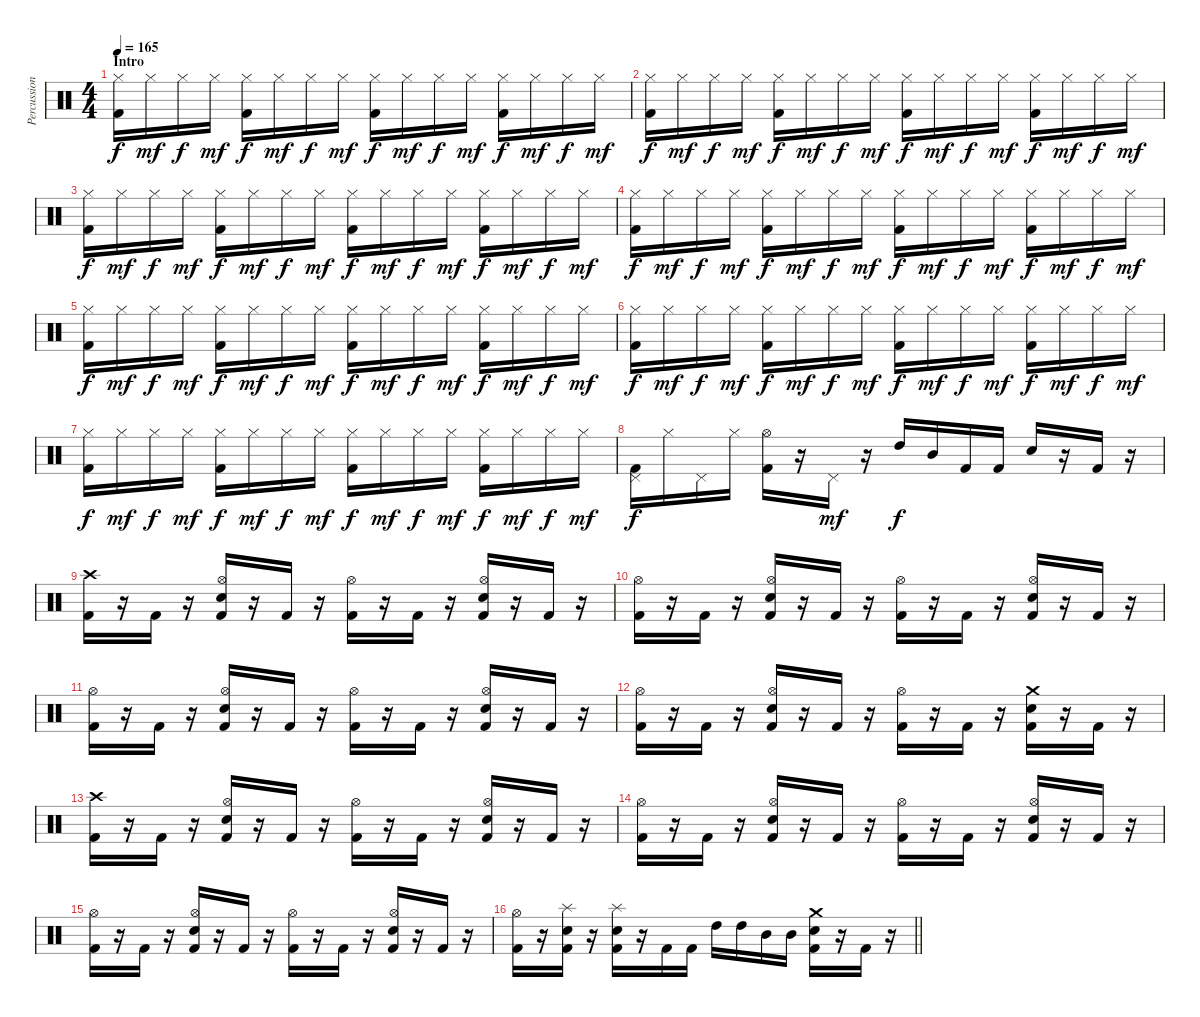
\track ("Percussion" "Percussion") {instrument percussion}
\staff {score}
\articulation defaults
\ts (4 4)
\section ("" "Intro")
\tempo 165
\clef neutral
\ks c
("Hi-Hat (closed)" "Kick (hit) 2").16{dy f} "Hi-Hat (closed)".16{dy mf} "Hi-Hat (closed)".16{dy f} "Hi-Hat (closed)".16{dy mf} ("Hi-Hat (closed)" "Kick (hit) 2").16{dy f} "Hi-Hat (closed)".16{dy mf} "Hi-Hat (closed)".16{dy f} "Hi-Hat (closed)".16{dy mf} ("Hi-Hat (closed)" "Kick (hit) 2").16{dy f} "Hi-Hat (closed)".16{dy mf} "Hi-Hat (closed)".16{dy f} "Hi-Hat (closed)".16{dy mf} ("Hi-Hat (closed)" "Kick (hit) 2").16{dy f} "Hi-Hat (closed)".16{dy mf} "Hi-Hat (closed)".16{dy f} "Hi-Hat (closed)".16{dy mf} |
("Hi-Hat (closed)" "Kick (hit) 2").16{dy f} "Hi-Hat (closed)".16{dy mf} "Hi-Hat (closed)".16{dy f} "Hi-Hat (closed)".16{dy mf} ("Hi-Hat (closed)" "Kick (hit) 2").16{dy f} "Hi-Hat (closed)".16{dy mf} "Hi-Hat (closed)".16{dy f} "Hi-Hat (closed)".16{dy mf} ("Hi-Hat (closed)" "Kick (hit) 2").16{dy f} "Hi-Hat (closed)".16{dy mf} "Hi-Hat (closed)".16{dy f} "Hi-Hat (closed)".16{dy mf} ("Hi-Hat (closed)" "Kick (hit) 2").16{dy f} "Hi-Hat (closed)".16{dy mf} "Hi-Hat (closed)".16{dy f} "Hi-Hat (closed)".16{dy mf} |
("Hi-Hat (closed)" "Kick (hit) 2").16{dy f} "Hi-Hat (closed)".16{dy mf} "Hi-Hat (closed)".16{dy f} "Hi-Hat (closed)".16{dy mf} ("Hi-Hat (closed)" "Kick (hit) 2").16{dy f} "Hi-Hat (closed)".16{dy mf} "Hi-Hat (closed)".16{dy f} "Hi-Hat (closed)".16{dy mf} ("Hi-Hat (closed)" "Kick (hit) 2").16{dy f} "Hi-Hat (closed)".16{dy mf} "Hi-Hat (closed)".16{dy f} "Hi-Hat (closed)".16{dy mf} ("Hi-Hat (closed)" "Kick (hit) 2").16{dy f} "Hi-Hat (closed)".16{dy mf} "Hi-Hat (closed)".16{dy f} "Hi-Hat (closed)".16{dy mf} |
("Hi-Hat (closed)" "Kick (hit) 2").16{dy f} "Hi-Hat (closed)".16{dy mf} "Hi-Hat (closed)".16{dy f} "Hi-Hat (closed)".16{dy mf} ("Hi-Hat (closed)" "Kick (hit) 2").16{dy f} "Hi-Hat (closed)".16{dy mf} "Hi-Hat (closed)".16{dy f} "Hi-Hat (closed)".16{dy mf} ("Hi-Hat (closed)" "Kick (hit) 2").16{dy f} "Hi-Hat (closed)".16{dy mf} "Hi-Hat (closed)".16{dy f} "Hi-Hat (closed)".16{dy mf} ("Hi-Hat (closed)" "Kick (hit) 2").16{dy f} "Hi-Hat (closed)".16{dy mf} "Hi-Hat (closed)".16{dy f} "Hi-Hat (closed)".16{dy mf} |
("Hi-Hat (closed)" "Kick (hit) 2").16{dy f} "Hi-Hat (closed)".16{dy mf} "Hi-Hat (closed)".16{dy f} "Hi-Hat (closed)".16{dy mf} ("Hi-Hat (closed)" "Kick (hit) 2").16{dy f} "Hi-Hat (closed)".16{dy mf} "Hi-Hat (closed)".16{dy f} "Hi-Hat (closed)".16{dy mf} ("Hi-Hat (closed)" "Kick (hit) 2").16{dy f} "Hi-Hat (closed)".16{dy mf} "Hi-Hat (closed)".16{dy f} "Hi-Hat (closed)".16{dy mf} ("Hi-Hat (closed)" "Kick (hit) 2").16{dy f} "Hi-Hat (closed)".16{dy mf} "Hi-Hat (closed)".16{dy f} "Hi-Hat (closed)".16{dy mf} |
("Hi-Hat (closed)" "Kick (hit) 2").16{dy f} "Hi-Hat (closed)".16{dy mf} "Hi-Hat (closed)".16{dy f} "Hi-Hat (closed)".16{dy mf} ("Hi-Hat (closed)" "Kick (hit) 2").16{dy f} "Hi-Hat (closed)".16{dy mf} "Hi-Hat (closed)".16{dy f} "Hi-Hat (closed)".16{dy mf} ("Hi-Hat (closed)" "Kick (hit) 2").16{dy f} "Hi-Hat (closed)".16{dy mf} "Hi-Hat (closed)".16{dy f} "Hi-Hat (closed)".16{dy mf} ("Hi-Hat (closed)" "Kick (hit) 2").16{dy f} "Hi-Hat (closed)".16{dy mf} "Hi-Hat (closed)".16{dy f} "Hi-Hat (closed)".16{dy mf} |
("Hi-Hat (closed)" "Kick (hit) 2").16{dy f} "Hi-Hat (closed)".16{dy mf} "Hi-Hat (closed)".16{dy f} "Hi-Hat (closed)".16{dy mf} ("Hi-Hat (closed)" "Kick (hit) 2").16{dy f} "Hi-Hat (closed)".16{dy mf} "Hi-Hat (closed)".16{dy f} "Hi-Hat (closed)".16{dy mf} ("Hi-Hat (closed)" "Kick (hit) 2").16{dy f} "Hi-Hat (closed)".16{dy mf} "Hi-Hat (closed)".16{dy f} "Hi-Hat (closed)".16{dy mf} ("Hi-Hat (closed)" "Kick (hit) 2").16{dy f} "Hi-Hat (closed)".16{dy mf} "Hi-Hat (closed)".16{dy f} "Hi-Hat (closed)".16{dy mf} |
("Pedal Hi-Hat (hit)" "Kick (hit) 2").16{dy f} "Hi-Hat (closed)".16 "Pedal Hi-Hat (hit)".16 "Hi-Hat (closed)".16 ("Hi-Hat (open)" "Kick (hit) 2").16 r.16 "Pedal Hi-Hat (hit)".16{dy mf} r.16 "High Tom (hit)".16{dy f} "Mid Tom (hit)".16 "Kick (hit) 2".16 "Kick (hit) 2".16 "Snare (hit) 2".16 r.16 "Kick (hit) 2".16 r.16 |
("Crash high (hit)" "Kick (hit) 2").16 r.16 "Kick (hit) 2".16 r.16 ("Hi-Hat (open)" "Snare (hit) 2" "Kick (hit) 2").16 r.16 "Kick (hit) 2".16 r.16 ("Hi-Hat (open)" "Kick (hit) 2").16 r.16 "Kick (hit) 2".16 r.16 ("Hi-Hat (open)" "Snare (hit) 2" "Kick (hit) 2").16 r.16 "Kick (hit) 2".16 r.16 |
("Hi-Hat (open)" "Kick (hit) 2").16 r.16 "Kick (hit) 2".16 r.16 ("Hi-Hat (open)" "Snare (hit) 2" "Kick (hit) 2").16 r.16 "Kick (hit) 2".16 r.16 ("Hi-Hat (open)" "Kick (hit) 2").16 r.16 "Kick (hit) 2".16 r.16 ("Hi-Hat (open)" "Snare (hit) 2" "Kick (hit) 2").16 r.16 "Kick (hit) 2".16 r.16 |
("Hi-Hat (open)" "Kick (hit) 2").16 r.16 "Kick (hit) 2".16 r.16 ("Hi-Hat (open)" "Snare (hit) 2" "Kick (hit) 2").16 r.16 "Kick (hit) 2".16 r.16 ("Hi-Hat (open)" "Kick (hit) 2").16 r.16 "Kick (hit) 2".16 r.16 ("Hi-Hat (open)" "Snare (hit) 2" "Kick (hit) 2").16 r.16 "Kick (hit) 2".16 r.16 |
("Hi-Hat (open)" "Kick (hit) 2").16 r.16 "Kick (hit) 2".16 r.16 ("Hi-Hat (open)" "Snare (hit) 2" "Kick (hit) 2").16 r.16 "Kick (hit) 2".16 r.16 ("Hi-Hat (open)" "Kick (hit) 2").16 r.16 "Kick (hit) 2".16 r.16 ("Crash medium (hit)" "Snare (hit) 2" "Kick (hit) 2").16 r.16 "Kick (hit) 2".16 r.16 |
("Crash high (hit)" "Kick (hit) 2").16 r.16 "Kick (hit) 2".16 r.16 ("Hi-Hat (open)" "Snare (hit) 2" "Kick (hit) 2").16 r.16 "Kick (hit) 2".16 r.16 ("Hi-Hat (open)" "Kick (hit) 2").16 r.16 "Kick (hit) 2".16 r.16 ("Hi-Hat (open)" "Snare (hit) 2" "Kick (hit) 2").16 r.16 "Kick (hit) 2".16 r.16 |
("Hi-Hat (open)" "Kick (hit) 2").16 r.16 "Kick (hit) 2".16 r.16 ("Hi-Hat (open)" "Snare (hit) 2" "Kick (hit) 2").16 r.16 "Kick (hit) 2".16 r.16 ("Hi-Hat (open)" "Kick (hit) 2").16 r.16 "Kick (hit) 2".16 r.16 ("Hi-Hat (open)" "Snare (hit) 2" "Kick (hit) 2").16 r.16 "Kick (hit) 2".16 r.16 |
("Hi-Hat (open)" "Kick (hit) 2").16 r.16 "Kick (hit) 2".16 r.16 ("Hi-Hat (open)" "Snare (hit) 2" "Kick (hit) 2").16 r.16 "Kick (hit) 2".16 r.16 ("Hi-Hat (open)" "Kick (hit) 2").16 r.16 "Kick (hit) 2".16 r.16 ("Hi-Hat (open)" "Snare (hit) 2" "Kick (hit) 2").16 r.16 "Kick (hit) 2".16 r.16 |
\barLineRight lightlight
("Hi-Hat (open)" "Kick (hit) 2").16 r.16 ("Splash (hit)" "Snare (hit) 2" "Kick (hit) 2").16 r.16 ("Splash (hit)" "Snare (hit) 2" "Kick (hit) 2").16 r.16 "Kick (hit) 2".16 "Kick (hit) 2".16 "High Tom (hit)".16 "High Tom (hit)".16 "Mid Tom (hit)".16 "Mid Tom (hit)".16 ("Crash medium (hit)" "Snare (hit) 2" "Kick (hit) 2").16 r.16 "Kick (hit) 2".16 r.16
